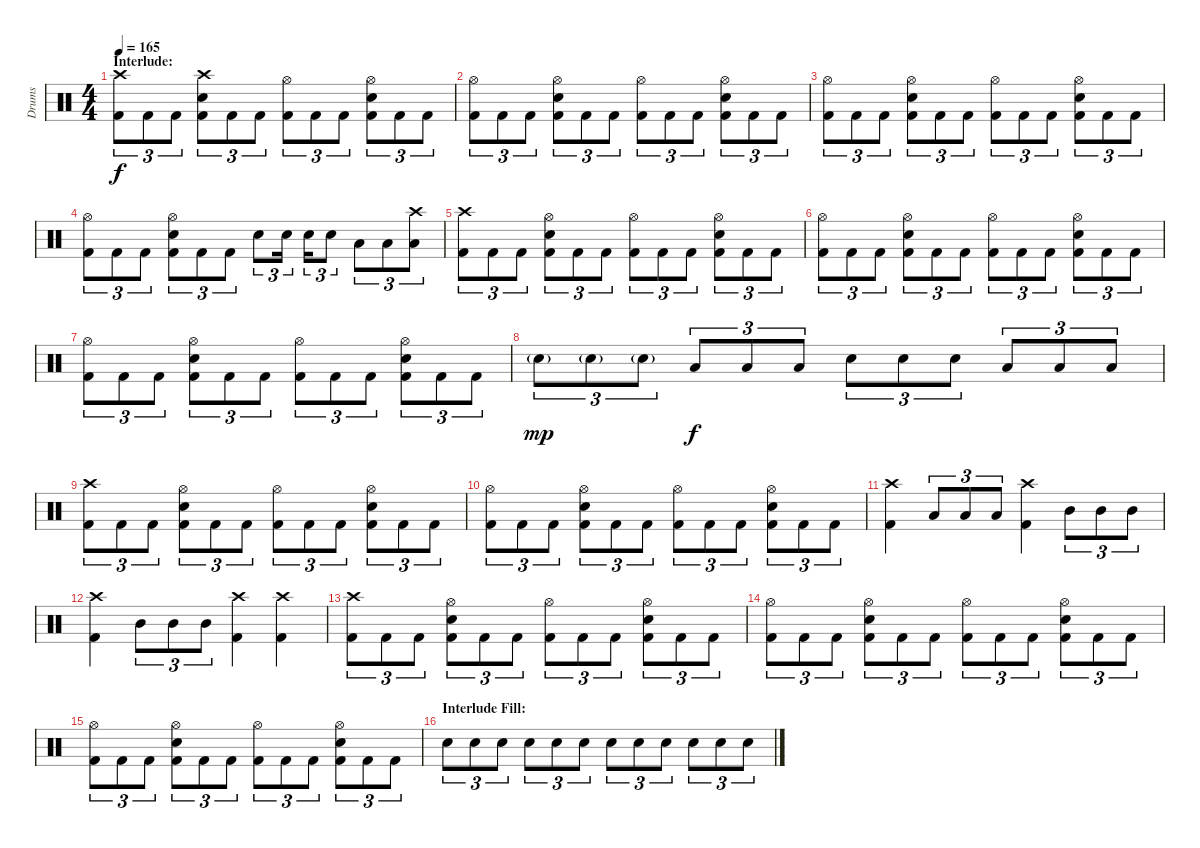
\track ("Drums" "Drums") {instrument percussion}
\staff {score}
\articulation defaults
\ts (4 4)
\section ("" "Interlude:")
\tempo 165
\clef neutral
\ks c
("Crash high (hit)" "Kick (hit) 2").8{tu (3 2) dy f} "Kick (hit) 2".8{tu (3 2)} "Kick (hit) 2".8{tu (3 2)} ("Crash high (hit)" "Electric Snare (hit)" "Kick (hit) 2").8{tu (3 2)} "Kick (hit) 2".8{tu (3 2)} "Kick (hit) 2".8{tu (3 2)} ("Hi-Hat (open)" "Kick (hit) 2").8{tu (3 2)} "Kick (hit) 2".8{tu (3 2)} "Kick (hit) 2".8{tu (3 2)} ("Hi-Hat (open)" "Electric Snare (hit)" "Kick (hit) 2").8{tu (3 2)} "Kick (hit) 2".8{tu (3 2)} "Kick (hit) 2".8{tu (3 2)} |
("Hi-Hat (open)" "Kick (hit) 2").8{tu (3 2)} "Kick (hit) 2".8{tu (3 2)} "Kick (hit) 2".8{tu (3 2)} ("Hi-Hat (open)" "Electric Snare (hit)" "Kick (hit) 2").8{tu (3 2)} "Kick (hit) 2".8{tu (3 2)} "Kick (hit) 2".8{tu (3 2)} ("Hi-Hat (open)" "Kick (hit) 2").8{tu (3 2)} "Kick (hit) 2".8{tu (3 2)} "Kick (hit) 2".8{tu (3 2)} ("Hi-Hat (open)" "Electric Snare (hit)" "Kick (hit) 2").8{tu (3 2)} "Kick (hit) 2".8{tu (3 2)} "Kick (hit) 2".8{tu (3 2)} |
("Hi-Hat (open)" "Kick (hit) 2").8{tu (3 2)} "Kick (hit) 2".8{tu (3 2)} "Kick (hit) 2".8{tu (3 2)} ("Hi-Hat (open)" "Electric Snare (hit)" "Kick (hit) 2").8{tu (3 2)} "Kick (hit) 2".8{tu (3 2)} "Kick (hit) 2".8{tu (3 2)} ("Hi-Hat (open)" "Kick (hit) 2").8{tu (3 2)} "Kick (hit) 2".8{tu (3 2)} "Kick (hit) 2".8{tu (3 2)} ("Hi-Hat (open)" "Electric Snare (hit)" "Kick (hit) 2").8{tu (3 2)} "Kick (hit) 2".8{tu (3 2)} "Kick (hit) 2".8{tu (3 2)} |
("Hi-Hat (open)" "Kick (hit) 2").8{tu (3 2)} "Kick (hit) 2".8{tu (3 2)} "Kick (hit) 2".8{tu (3 2)} ("Hi-Hat (open)" "Electric Snare (hit)" "Kick (hit) 2").8{tu (3 2)} "Kick (hit) 2".8{tu (3 2)} "Kick (hit) 2".8{tu (3 2)} "Electric Snare (hit)".8{tu (3 2)} "Electric Snare (hit)".16{tu (3 2)} "Electric Snare (hit)".16{tu (3 2)} "Electric Snare (hit)".8{tu (3 2)} "Low Tom (hit)".8{tu (3 2)} "Low Tom (hit)".8{tu (3 2)} ("Crash high (hit)" "Low Tom (hit)").8{tu (3 2)} |
("Crash high (hit)" "Kick (hit) 2").8{tu (3 2)} "Kick (hit) 2".8{tu (3 2)} "Kick (hit) 2".8{tu (3 2)} ("Hi-Hat (open)" "Electric Snare (hit)" "Kick (hit) 2").8{tu (3 2)} "Kick (hit) 2".8{tu (3 2)} "Kick (hit) 2".8{tu (3 2)} ("Hi-Hat (open)" "Kick (hit) 2").8{tu (3 2)} "Kick (hit) 2".8{tu (3 2)} "Kick (hit) 2".8{tu (3 2)} ("Hi-Hat (open)" "Electric Snare (hit)" "Kick (hit) 2").8{tu (3 2)} "Kick (hit) 2".8{tu (3 2)} "Kick (hit) 2".8{tu (3 2)} |
("Hi-Hat (open)" "Kick (hit) 2").8{tu (3 2)} "Kick (hit) 2".8{tu (3 2)} "Kick (hit) 2".8{tu (3 2)} ("Hi-Hat (open)" "Electric Snare (hit)" "Kick (hit) 2").8{tu (3 2)} "Kick (hit) 2".8{tu (3 2)} "Kick (hit) 2".8{tu (3 2)} ("Hi-Hat (open)" "Kick (hit) 2").8{tu (3 2)} "Kick (hit) 2".8{tu (3 2)} "Kick (hit) 2".8{tu (3 2)} ("Hi-Hat (open)" "Electric Snare (hit)" "Kick (hit) 2").8{tu (3 2)} "Kick (hit) 2".8{tu (3 2)} "Kick (hit) 2".8{tu (3 2)} |
("Hi-Hat (open)" "Kick (hit) 2").8{tu (3 2)} "Kick (hit) 2".8{tu (3 2)} "Kick (hit) 2".8{tu (3 2)} ("Hi-Hat (open)" "Electric Snare (hit)" "Kick (hit) 2").8{tu (3 2)} "Kick (hit) 2".8{tu (3 2)} "Kick (hit) 2".8{tu (3 2)} ("Hi-Hat (open)" "Kick (hit) 2").8{tu (3 2)} "Kick (hit) 2".8{tu (3 2)} "Kick (hit) 2".8{tu (3 2)} ("Hi-Hat (open)" "Electric Snare (hit)" "Kick (hit) 2").8{tu (3 2)} "Kick (hit) 2".8{tu (3 2)} "Kick (hit) 2".8{tu (3 2)} |
"Electric Snare (hit)"{g}.8{tu (3 2) dy mp} "Electric Snare (hit)"{g}.8{tu (3 2)} "Electric Snare (hit)"{g}.8{tu (3 2)} "Low Tom (hit)".8{tu (3 2) dy f} "Low Tom (hit)".8{tu (3 2)} "Low Tom (hit)".8{tu (3 2)} "Electric Snare (hit)".8{tu (3 2)} "Electric Snare (hit)".8{tu (3 2)} "Electric Snare (hit)".8{tu (3 2)} "Low Tom (hit)".8{tu (3 2)} "Low Tom (hit)".8{tu (3 2)} "Low Tom (hit)".8{tu (3 2)} |
("Crash high (hit)" "Kick (hit) 2").8{tu (3 2)} "Kick (hit) 2".8{tu (3 2)} "Kick (hit) 2".8{tu (3 2)} ("Hi-Hat (open)" "Electric Snare (hit)" "Kick (hit) 2").8{tu (3 2)} "Kick (hit) 2".8{tu (3 2)} "Kick (hit) 2".8{tu (3 2)} ("Hi-Hat (open)" "Kick (hit) 2").8{tu (3 2)} "Kick (hit) 2".8{tu (3 2)} "Kick (hit) 2".8{tu (3 2)} ("Hi-Hat (open)" "Electric Snare (hit)" "Kick (hit) 2").8{tu (3 2)} "Kick (hit) 2".8{tu (3 2)} "Kick (hit) 2".8{tu (3 2)} |
("Hi-Hat (open)" "Kick (hit) 2").8{tu (3 2)} "Kick (hit) 2".8{tu (3 2)} "Kick (hit) 2".8{tu (3 2)} ("Hi-Hat (open)" "Electric Snare (hit)" "Kick (hit) 2").8{tu (3 2)} "Kick (hit) 2".8{tu (3 2)} "Kick (hit) 2".8{tu (3 2)} ("Hi-Hat (open)" "Kick (hit) 2").8{tu (3 2)} "Kick (hit) 2".8{tu (3 2)} "Kick (hit) 2".8{tu (3 2)} ("Hi-Hat (open)" "Electric Snare (hit)" "Kick (hit) 2").8{tu (3 2)} "Kick (hit) 2".8{tu (3 2)} "Kick (hit) 2".8{tu (3 2)} |
("Crash high (hit)" "Kick (hit) 2").4 "Low Tom (hit)".8{tu (3 2)} "Low Tom (hit)".8{tu (3 2)} "Low Tom (hit)".8{tu (3 2)} ("Crash high (hit)" "Kick (hit) 2").4 "Mid Tom (hit)".8{tu (3 2)} "Mid Tom (hit)".8{tu (3 2)} "Mid Tom (hit)".8{tu (3 2)} |
("Crash high (hit)" "Kick (hit) 2").4 "Mid Tom (hit)".8{tu (3 2)} "Mid Tom (hit)".8{tu (3 2)} "Mid Tom (hit)".8{tu (3 2)} ("Crash high (hit)" "Kick (hit) 2").4 ("Crash high (hit)" "Kick (hit) 2").4 |
("Crash high (hit)" "Kick (hit) 2").8{tu (3 2)} "Kick (hit) 2".8{tu (3 2)} "Kick (hit) 2".8{tu (3 2)} ("Hi-Hat (open)" "Electric Snare (hit)" "Kick (hit) 2").8{tu (3 2)} "Kick (hit) 2".8{tu (3 2)} "Kick (hit) 2".8{tu (3 2)} ("Hi-Hat (open)" "Kick (hit) 2").8{tu (3 2)} "Kick (hit) 2".8{tu (3 2)} "Kick (hit) 2".8{tu (3 2)} ("Hi-Hat (open)" "Electric Snare (hit)" "Kick (hit) 2").8{tu (3 2)} "Kick (hit) 2".8{tu (3 2)} "Kick (hit) 2".8{tu (3 2)} |
("Hi-Hat (open)" "Kick (hit) 2").8{tu (3 2)} "Kick (hit) 2".8{tu (3 2)} "Kick (hit) 2".8{tu (3 2)} ("Hi-Hat (open)" "Electric Snare (hit)" "Kick (hit) 2").8{tu (3 2)} "Kick (hit) 2".8{tu (3 2)} "Kick (hit) 2".8{tu (3 2)} ("Hi-Hat (open)" "Kick (hit) 2").8{tu (3 2)} "Kick (hit) 2".8{tu (3 2)} "Kick (hit) 2".8{tu (3 2)} ("Hi-Hat (open)" "Electric Snare (hit)" "Kick (hit) 2").8{tu (3 2)} "Kick (hit) 2".8{tu (3 2)} "Kick (hit) 2".8{tu (3 2)} |
("Hi-Hat (open)" "Kick (hit) 2").8{tu (3 2)} "Kick (hit) 2".8{tu (3 2)} "Kick (hit) 2".8{tu (3 2)} ("Hi-Hat (open)" "Electric Snare (hit)" "Kick (hit) 2").8{tu (3 2)} "Kick (hit) 2".8{tu (3 2)} "Kick (hit) 2".8{tu (3 2)} ("Hi-Hat (open)" "Kick (hit) 2").8{tu (3 2)} "Kick (hit) 2".8{tu (3 2)} "Kick (hit) 2".8{tu (3 2)} ("Hi-Hat (open)" "Electric Snare (hit)" "Kick (hit) 2").8{tu (3 2)} "Kick (hit) 2".8{tu (3 2)} "Kick (hit) 2".8{tu (3 2)} |
\section ("" "Interlude Fill:")
"Electric Snare (hit)".8{tu (3 2)} "Electric Snare (hit)".8{tu (3 2)} "Electric Snare (hit)".8{tu (3 2)} "Electric Snare (hit)".8{tu (3 2)} "Electric Snare (hit)".8{tu (3 2)} "Electric Snare (hit)".8{tu (3 2)} "Electric Snare (hit)".8{tu (3 2)} "Electric Snare (hit)".8{tu (3 2)} "Electric Snare (hit)".8{tu (3 2)} "Electric Snare (hit)".8{tu (3 2)} "Electric Snare (hit)".8{tu (3 2)} "Electric Snare (hit)".8{tu (3 2)}
